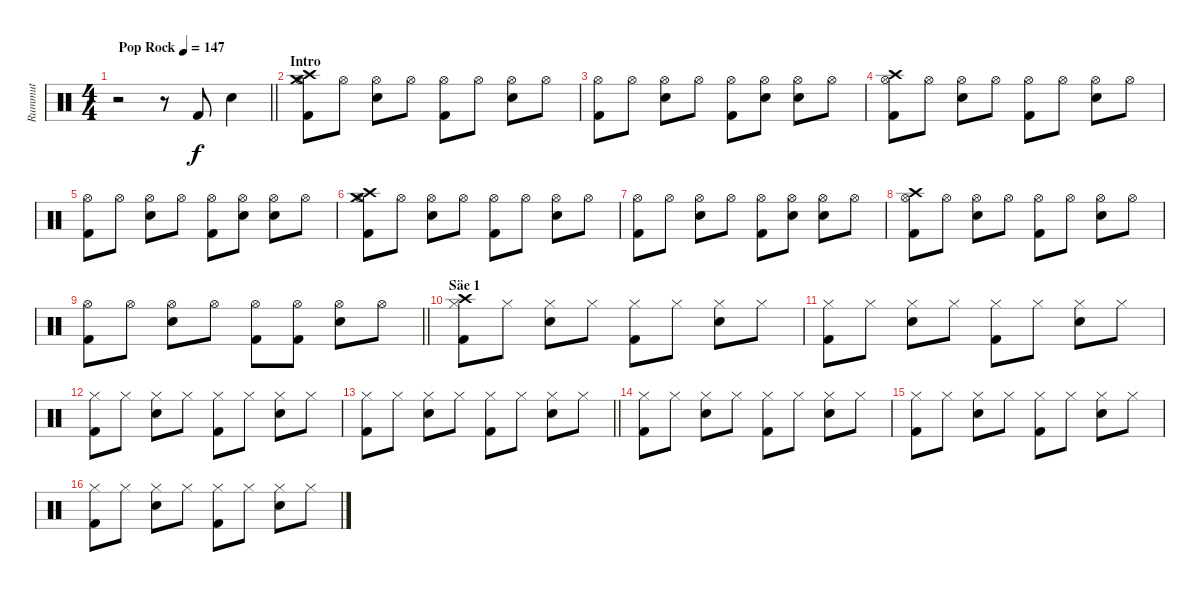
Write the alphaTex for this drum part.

\track ("Rummut" "Rummut") {instrument percussion}
\staff {score}
\articulation defaults
\ts (4 4)
\tempo (147 "Pop Rock")
\clef neutral
\barLineRight lightlight
\ks c
r.2{dy f} r.8 "Kick (hit) 2".8 "Snare (hit) 2".4 |
\section ("" "Intro")
("Crash high (hit)" "Crash medium (hit)" "Hi-Hat (open)" "Kick (hit) 2").8 "Hi-Hat (open)".8 ("Hi-Hat (open)" "Snare (hit) 2").8 "Hi-Hat (open)".8 ("Hi-Hat (open)" "Kick (hit) 2").8 "Hi-Hat (open)".8 ("Hi-Hat (open)" "Snare (hit) 2").8 "Hi-Hat (open)".8 |
("Hi-Hat (open)" "Kick (hit) 2").8 "Hi-Hat (open)".8 ("Hi-Hat (open)" "Snare (hit) 2").8 "Hi-Hat (open)".8 ("Hi-Hat (open)" "Kick (hit) 2").8 ("Hi-Hat (open)" "Snare (hit) 2").8 ("Hi-Hat (open)" "Snare (hit) 2").8 "Hi-Hat (open)".8 |
("Crash high (hit)" "Hi-Hat (open)" "Kick (hit) 2").8 "Hi-Hat (open)".8 ("Hi-Hat (open)" "Snare (hit) 2").8 "Hi-Hat (open)".8 ("Hi-Hat (open)" "Kick (hit) 2").8 "Hi-Hat (open)".8 ("Hi-Hat (open)" "Snare (hit) 2").8 "Hi-Hat (open)".8 |
("Hi-Hat (open)" "Kick (hit) 2").8 "Hi-Hat (open)".8 ("Hi-Hat (open)" "Snare (hit) 2").8 "Hi-Hat (open)".8 ("Hi-Hat (open)" "Kick (hit) 2").8 ("Hi-Hat (open)" "Snare (hit) 2").8 ("Hi-Hat (open)" "Snare (hit) 2").8 "Hi-Hat (open)".8 |
("Crash high (hit)" "Crash medium (hit)" "Hi-Hat (open)" "Kick (hit) 2").8 "Hi-Hat (open)".8 ("Hi-Hat (open)" "Snare (hit) 2").8 "Hi-Hat (open)".8 ("Hi-Hat (open)" "Kick (hit) 2").8 "Hi-Hat (open)".8 ("Hi-Hat (open)" "Snare (hit) 2").8 "Hi-Hat (open)".8 |
("Hi-Hat (open)" "Kick (hit) 2").8 "Hi-Hat (open)".8 ("Hi-Hat (open)" "Snare (hit) 2").8 "Hi-Hat (open)".8 ("Hi-Hat (open)" "Kick (hit) 2").8 ("Hi-Hat (open)" "Snare (hit) 2").8 ("Hi-Hat (open)" "Snare (hit) 2").8 "Hi-Hat (open)".8 |
("Crash high (hit)" "Hi-Hat (open)" "Kick (hit) 2").8 "Hi-Hat (open)".8 ("Hi-Hat (open)" "Snare (hit) 2").8 "Hi-Hat (open)".8 ("Hi-Hat (open)" "Kick (hit) 2").8 "Hi-Hat (open)".8 ("Hi-Hat (open)" "Snare (hit) 2").8 "Hi-Hat (open)".8 |
\barLineRight lightlight
("Hi-Hat (open)" "Kick (hit) 2").8 "Hi-Hat (open)".8 ("Hi-Hat (open)" "Snare (hit) 2").8 "Hi-Hat (open)".8 ("Hi-Hat (open)" "Kick (hit) 2").8 ("Hi-Hat (open)" "Kick (hit) 2").8 ("Hi-Hat (open)" "Snare (hit) 2").8 "Hi-Hat (open)".8 |
\section ("" "Säe 1")
("Crash high (hit)" "Hi-Hat (closed)" "Kick (hit) 2").8 "Hi-Hat (closed)".8 ("Hi-Hat (closed)" "Snare (hit) 2").8 "Hi-Hat (closed)".8 ("Hi-Hat (closed)" "Kick (hit) 2").8 "Hi-Hat (closed)".8 ("Hi-Hat (closed)" "Snare (hit) 2").8 "Hi-Hat (closed)".8 |
("Hi-Hat (closed)" "Kick (hit) 2").8 "Hi-Hat (closed)".8 ("Hi-Hat (closed)" "Snare (hit) 2").8 "Hi-Hat (closed)".8 ("Hi-Hat (closed)" "Kick (hit) 2").8 "Hi-Hat (closed)".8 ("Hi-Hat (closed)" "Snare (hit) 2").8 "Hi-Hat (closed)".8 |
("Hi-Hat (closed)" "Kick (hit) 2").8 "Hi-Hat (closed)".8 ("Hi-Hat (closed)" "Snare (hit) 2").8 "Hi-Hat (closed)".8 ("Hi-Hat (closed)" "Kick (hit) 2").8 "Hi-Hat (closed)".8 ("Hi-Hat (closed)" "Snare (hit) 2").8 "Hi-Hat (closed)".8 |
\barLineRight lightlight
("Hi-Hat (closed)" "Kick (hit) 2").8 "Hi-Hat (closed)".8 ("Hi-Hat (closed)" "Snare (hit) 2").8 "Hi-Hat (closed)".8 ("Hi-Hat (closed)" "Kick (hit) 2").8 "Hi-Hat (closed)".8 ("Hi-Hat (closed)" "Snare (hit) 2").8 "Hi-Hat (closed)".8 |
("Hi-Hat (closed)" "Kick (hit) 2").8 "Hi-Hat (closed)".8 ("Hi-Hat (closed)" "Snare (hit) 2").8 "Hi-Hat (closed)".8 ("Hi-Hat (closed)" "Kick (hit) 2").8 "Hi-Hat (closed)".8 ("Hi-Hat (closed)" "Snare (hit) 2").8 "Hi-Hat (closed)".8 |
("Hi-Hat (closed)" "Kick (hit) 2").8 "Hi-Hat (closed)".8 ("Hi-Hat (closed)" "Snare (hit) 2").8 "Hi-Hat (closed)".8 ("Hi-Hat (closed)" "Kick (hit) 2").8 "Hi-Hat (closed)".8 ("Hi-Hat (closed)" "Snare (hit) 2").8 "Hi-Hat (closed)".8 |
("Hi-Hat (closed)" "Kick (hit) 2").8 "Hi-Hat (closed)".8 ("Hi-Hat (closed)" "Snare (hit) 2").8 "Hi-Hat (closed)".8 ("Hi-Hat (closed)" "Kick (hit) 2").8 "Hi-Hat (closed)".8 ("Hi-Hat (closed)" "Snare (hit) 2").8 "Hi-Hat (closed)".8
